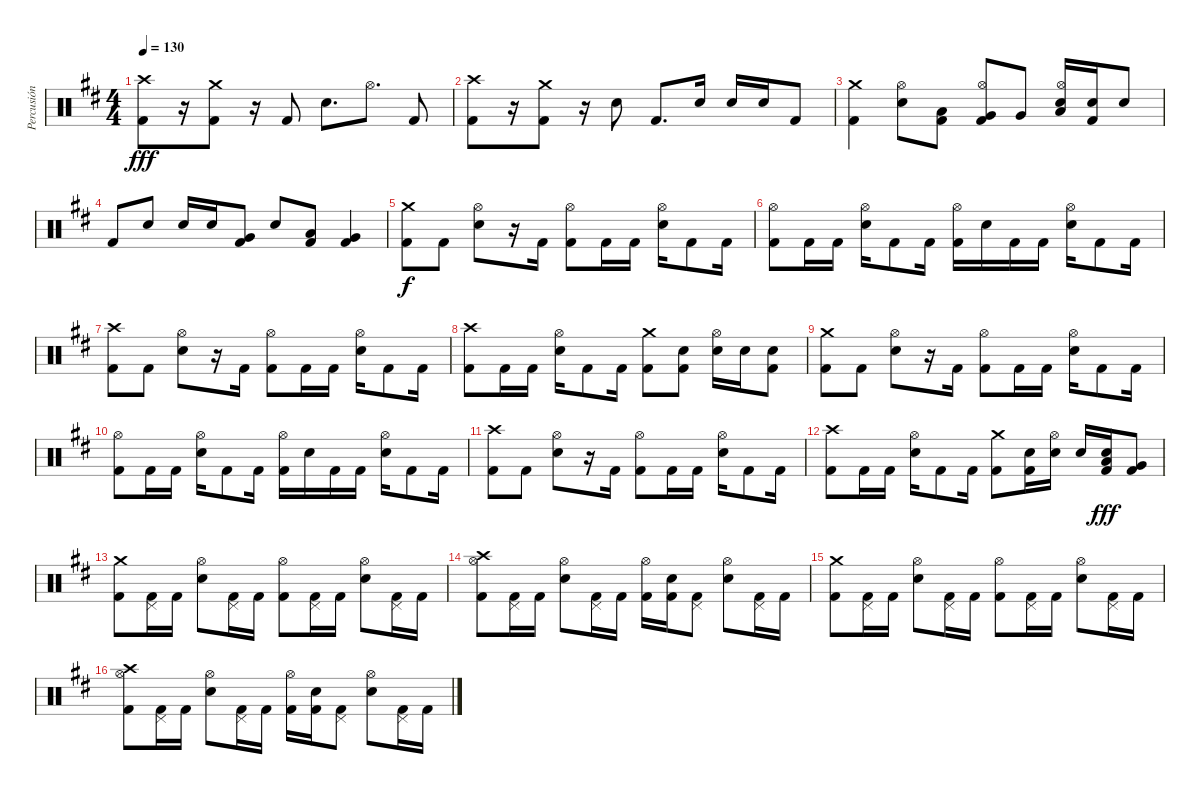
\track ("Percusión" "Percusión") {instrument percussion}
\staff {score}
\articulation defaults
\ts (4 4)
\tempo 130
\clef neutral
\ks d
("Crash high (hit)" "Kick (hit) 2").8{dy fff} r.16 ("Crash medium (hit)" "Kick (hit) 2").8 r.16 "Kick (hit) 2".8 "Electric Snare (hit)".8{d} "Hi-Hat (open)".8{d} "Kick (hit) 2".8 |
("Crash high (hit)" "Kick (hit) 2").8 r.16 ("Crash medium (hit)" "Kick (hit) 2").8 r.16 "Electric Snare (hit)".8 "Kick (hit) 2".8{d} "Electric Snare (hit)".16 "Electric Snare (hit)".16 "Electric Snare (hit)".16 "Kick (hit) 2".8 |
("Crash medium (hit)" "Kick (hit) 2").4 ("Hi-Hat (open)" "Electric Snare (hit)").8 ("Low Tom (hit)" "Kick (hit) 2").8 ("Hi-Hat (open)" "Very Low Tom (hit)" "Kick (hit) 2").8 "Very Low Tom (hit)".8 ("Hi-Hat (open)" "Electric Snare (hit)" "Low Floor Tom (hit)").16 ("Electric Snare (hit)" "Kick (hit) 2").16 "Electric Snare (hit)".8 |
"Kick (hit) 2".8 "Electric Snare (hit)".8 "Electric Snare (hit)".16 "Electric Snare (hit)".16 ("Very Low Tom (hit)" "Kick (hit) 2").8 "Electric Snare (hit)".8 ("Low Tom (hit)" "Kick (hit) 2").8 ("Very Low Tom (hit)" "Kick (hit) 2").4 |
("Crash medium (hit)" "Kick (hit) 2").8{dy f} "Kick (hit) 2".8 ("Hi-Hat (open)" "Electric Snare (hit)").8 r.16 "Kick (hit) 2".16 ("Hi-Hat (open)" "Kick (hit) 2").8 "Kick (hit) 2".16 "Kick (hit) 2".16 ("Hi-Hat (open)" "Electric Snare (hit)").16 "Kick (hit) 2".8 "Kick (hit) 2".16 |
("Hi-Hat (open)" "Kick (hit) 2").8 "Kick (hit) 2".16 "Kick (hit) 2".16 ("Hi-Hat (open)" "Electric Snare (hit)").16 "Kick (hit) 2".8 "Kick (hit) 2".16 ("Hi-Hat (open)" "Kick (hit) 2").16 "Electric Snare (hit)".16 "Kick (hit) 2".16 "Kick (hit) 2".16 ("Hi-Hat (open)" "Electric Snare (hit)").16 "Kick (hit) 2".8 "Kick (hit) 2".16 |
("Crash high (hit)" "Kick (hit) 2").8 "Kick (hit) 2".8 ("Hi-Hat (open)" "Electric Snare (hit)").8 r.16 "Kick (hit) 2".16 ("Hi-Hat (open)" "Kick (hit) 2").8 "Kick (hit) 2".16 "Kick (hit) 2".16 ("Hi-Hat (open)" "Electric Snare (hit)").16 "Kick (hit) 2".8 "Kick (hit) 2".16 |
("Crash high (hit)" "Kick (hit) 2").8 "Kick (hit) 2".16 "Kick (hit) 2".16 ("Hi-Hat (open)" "Electric Snare (hit)").16 "Kick (hit) 2".8 "Kick (hit) 2".16 ("Crash medium (hit)" "Kick (hit) 2").8 ("Electric Snare (hit)" "Kick (hit) 2").8 ("Hi-Hat (open)" "Electric Snare (hit)").16 "Electric Snare (hit)".16 ("Electric Snare (hit)" "Kick (hit) 2").8 |
("Crash medium (hit)" "Kick (hit) 2").8 "Kick (hit) 2".8 ("Hi-Hat (open)" "Electric Snare (hit)").8 r.16 "Kick (hit) 2".16 ("Hi-Hat (open)" "Kick (hit) 2").8 "Kick (hit) 2".16 "Kick (hit) 2".16 ("Hi-Hat (open)" "Electric Snare (hit)").16 "Kick (hit) 2".8 "Kick (hit) 2".16 |
("Hi-Hat (open)" "Kick (hit) 2").8 "Kick (hit) 2".16 "Kick (hit) 2".16 ("Hi-Hat (open)" "Electric Snare (hit)").16 "Kick (hit) 2".8 "Kick (hit) 2".16 ("Hi-Hat (open)" "Kick (hit) 2").16 "Electric Snare (hit)".16 "Kick (hit) 2".16 "Kick (hit) 2".16 ("Hi-Hat (open)" "Electric Snare (hit)").16 "Kick (hit) 2".8 "Kick (hit) 2".16 |
("Crash high (hit)" "Kick (hit) 2").8 "Kick (hit) 2".8 ("Hi-Hat (open)" "Electric Snare (hit)").8 r.16 "Kick (hit) 2".16 ("Hi-Hat (open)" "Kick (hit) 2").8 "Kick (hit) 2".16 "Kick (hit) 2".16 ("Hi-Hat (open)" "Electric Snare (hit)").16 "Kick (hit) 2".8 "Kick (hit) 2".16 |
("Crash high (hit)" "Kick (hit) 2").8 "Kick (hit) 2".16 "Kick (hit) 2".16 ("Hi-Hat (open)" "Electric Snare (hit)").16 "Kick (hit) 2".8 "Kick (hit) 2".16 ("Crash medium (hit)" "Kick (hit) 2").8 ("Electric Snare (hit)" "Kick (hit) 2").16 ("Hi-Hat (open)" "Electric Snare (hit)").16 "Electric Snare (hit)".16 ("Electric Snare (hit)" "Low Tom (hit)" "Kick (hit) 2").16{dy fff} ("Very Low Tom (hit)" "Kick (hit) 2").8 |
("Crash medium (hit)" "Kick (hit) 2").8 ("Pedal Hi-Hat (hit)" "Kick (hit) 2").16 "Kick (hit) 2".16 ("Hi-Hat (open)" "Electric Snare (hit)").8 ("Pedal Hi-Hat (hit)" "Kick (hit) 2").16 "Kick (hit) 2".16 ("Hi-Hat (open)" "Kick (hit) 2").8 ("Pedal Hi-Hat (hit)" "Kick (hit) 2").16 "Kick (hit) 2".16 ("Hi-Hat (open)" "Electric Snare (hit)").8 ("Pedal Hi-Hat (hit)" "Kick (hit) 2").16 "Kick (hit) 2".16 |
("Crash high (hit)" "Hi-Hat (open)" "Kick (hit) 2").8 ("Pedal Hi-Hat (hit)" "Kick (hit) 2").16 "Kick (hit) 2".16 ("Hi-Hat (open)" "Electric Snare (hit)").8 ("Pedal Hi-Hat (hit)" "Kick (hit) 2").16 "Kick (hit) 2".16 ("Hi-Hat (open)" "Kick (hit) 2").16 ("Electric Snare (hit)" "Kick (hit) 2").16 ("Pedal Hi-Hat (hit)" "Kick (hit) 2").8 ("Hi-Hat (open)" "Electric Snare (hit)").8 ("Pedal Hi-Hat (hit)" "Kick (hit) 2").16 "Kick (hit) 2".16 |
("Crash medium (hit)" "Kick (hit) 2").8 ("Pedal Hi-Hat (hit)" "Kick (hit) 2").16 "Kick (hit) 2".16 ("Hi-Hat (open)" "Electric Snare (hit)").8 ("Pedal Hi-Hat (hit)" "Kick (hit) 2").16 "Kick (hit) 2".16 ("Hi-Hat (open)" "Kick (hit) 2").8 ("Pedal Hi-Hat (hit)" "Kick (hit) 2").16 "Kick (hit) 2".16 ("Hi-Hat (open)" "Electric Snare (hit)").8 ("Pedal Hi-Hat (hit)" "Kick (hit) 2").16 "Kick (hit) 2".16 |
("Crash high (hit)" "Hi-Hat (open)" "Kick (hit) 2").8 ("Pedal Hi-Hat (hit)" "Kick (hit) 2").16 "Kick (hit) 2".16 ("Hi-Hat (open)" "Electric Snare (hit)").8 ("Pedal Hi-Hat (hit)" "Kick (hit) 2").16 "Kick (hit) 2".16 ("Hi-Hat (open)" "Kick (hit) 2").16 ("Electric Snare (hit)" "Kick (hit) 2").16 ("Pedal Hi-Hat (hit)" "Kick (hit) 2").8 ("Hi-Hat (open)" "Electric Snare (hit)").8 ("Pedal Hi-Hat (hit)" "Kick (hit) 2").16 "Kick (hit) 2".16
